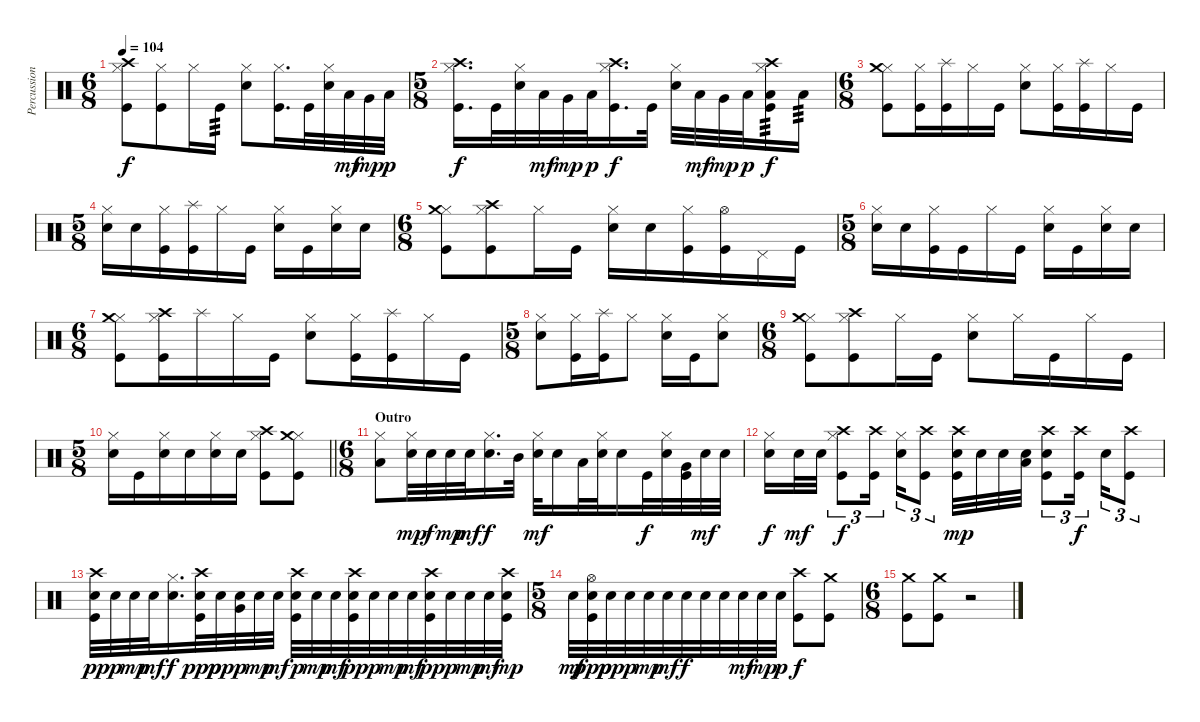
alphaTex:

\track ("Percussion" "Percussion") {instrument percussion}
\staff {score}
\articulation defaults
\ts (6 8)
\tempo 104
\clef neutral
\ks c
("Hi-Hat (closed)" "Crash high (hit)" "Kick (hit)").8{dy f} ("Hi-Hat (closed)" "Kick (hit)").8 "Hi-Hat (closed)".16 "Kick (hit)".16{tp 3} ("Hi-Hat (closed)" "Snare (hit) 2").8 ("Hi-Hat (closed)" "Kick (hit)").16{d} "Kick (hit)".32 ("Hi-Hat (closed)" "Snare (hit) 2").32 "Low Tom (hit)".32{dy mf} "Very Low Tom (hit)".32{dy mp} "Low Floor Tom (hit)".32{dy p} |
\ts (5 8)
("Hi-Hat (closed)" "Crash high (hit)" "Kick (hit)").16{d dy f} "Kick (hit)".32 ("Hi-Hat (closed)" "Snare (hit) 2").32 "Low Tom (hit)".32{dy mf} "Very Low Tom (hit)".32{dy mp} "Low Floor Tom (hit)".32{dy p} ("Hi-Hat (closed)" "Crash high (hit)" "Kick (hit)").16{d dy f} "Kick (hit)".32 ("Hi-Hat (closed)" "Snare (hit) 2").32 "Low Tom (hit)".32{dy mf} "Very Low Tom (hit)".32{dy mp} "Low Floor Tom (hit)".32{dy p} ("Hi-Hat (closed)" "Crash high (hit)" "Low Floor Tom (hit)" "Kick (hit)").16{tp 3 dy f} "Low Floor Tom (hit)".16{tp 3} |
\ts (6 8)
("Hi-Hat (closed)" "Crash medium (hit)" "Kick (hit)").8 ("Hi-Hat (closed)" "Kick (hit)").16 ("Splash (hit)" "Kick (hit)").16 "Hi-Hat (closed)".16 "Kick (hit)".16 ("Hi-Hat (closed)" "Snare (hit) 2").8 ("Hi-Hat (closed)" "Kick (hit)").16 ("Splash (hit)" "Kick (hit)").16 "Hi-Hat (closed)".16 "Kick (hit)".16 |
\ts (5 8)
("Hi-Hat (closed)" "Snare (hit) 2").16 "Snare (hit) 2".16 ("Hi-Hat (closed)" "Kick (hit)").16 ("Splash (hit)" "Kick (hit)").16 "Hi-Hat (closed)".16 "Kick (hit)".16 ("Hi-Hat (closed)" "Snare (hit) 2").16 "Kick (hit)".16 ("Hi-Hat (closed)" "Snare (hit) 2").16 "Snare (hit) 2".16 |
\ts (6 8)
("Hi-Hat (closed)" "Crash medium (hit)" "Kick (hit)").8 ("Hi-Hat (closed)" "Crash high (hit)" "Kick (hit)").8 "Hi-Hat (closed)".16 "Kick (hit)".16 ("Hi-Hat (closed)" "Snare (hit) 2").16 "Snare (hit) 2".16 ("Hi-Hat (closed)" "Kick (hit)").16 ("Hi-Hat (open)" "Kick (hit)").16 "Pedal Hi-Hat (hit)".16 "Kick (hit)".16 |
\ts (5 8)
("Hi-Hat (closed)" "Snare (hit) 2").16 "Snare (hit) 2".16 ("Hi-Hat (closed)" "Kick (hit)").16 "Kick (hit)".16 "Hi-Hat (closed)".16 "Kick (hit)".16 ("Hi-Hat (closed)" "Snare (hit) 2").16 "Kick (hit)".16 ("Hi-Hat (closed)" "Snare (hit) 2").16 "Snare (hit) 2".16 |
\ts (6 8)
("Hi-Hat (closed)" "Crash medium (hit)" "Kick (hit)").8 ("Hi-Hat (closed)" "Crash high (hit)" "Kick (hit)").16 "Splash (hit)".16 "Hi-Hat (closed)".16 "Kick (hit)".16 ("Hi-Hat (closed)" "Snare (hit) 2").8 ("Hi-Hat (closed)" "Kick (hit)").16 ("Splash (hit)" "Kick (hit)").16 "Hi-Hat (closed)".16 "Kick (hit)".16 |
\ts (5 8)
("Hi-Hat (closed)" "Snare (hit) 2").8 ("Hi-Hat (closed)" "Kick (hit)").16 ("Splash (hit)" "Kick (hit)").16 "Hi-Hat (closed)".8 ("Hi-Hat (closed)" "Snare (hit) 2").16 "Kick (hit)".16 ("Hi-Hat (closed)" "Snare (hit) 2").8 |
\ts (6 8)
("Hi-Hat (closed)" "Crash medium (hit)" "Kick (hit)").8 ("Hi-Hat (closed)" "Crash high (hit)" "Kick (hit)").8 "Hi-Hat (closed)".16 "Kick (hit)".16 ("Hi-Hat (closed)" "Snare (hit) 2").8 "Hi-Hat (closed)".16 "Kick (hit)".16 "Hi-Hat (closed)".16 "Kick (hit)".16 |
\ts (5 8)
\barLineRight lightlight
("Hi-Hat (closed)" "Snare (hit) 2").16 "Kick (hit)".16 ("Hi-Hat (closed)" "Snare (hit) 2").16 "Snare (hit) 2".16 ("Hi-Hat (closed)" "Snare (hit) 2").16 "Snare (hit) 2".16 ("Hi-Hat (closed)" "Crash high (hit)" "Kick (hit)").8 ("Hi-Hat (closed)" "Crash medium (hit)" "Kick (hit)").8 |
\ts (6 8)
\section ("" "Outro")
("Hi-Hat (closed)" "Low Floor Tom (hit)").8 ("Hi-Hat (closed)" "Snare (hit) 2").32{dy mp} "Snare (hit) 2".32{dy f} "Snare (hit) 2".32{dy mp} "Snare (hit) 2".32{dy mf} ("Hi-Hat (closed)" "Snare (hit) 2").16{d dy f} "Mid Tom (hit)".32 ("Hi-Hat (closed)" "Snare (hit) 2").32{dy mf} "Snare (hit) 2".16 "Low Tom (hit)".32 ("Hi-Hat (closed)" "Snare (hit) 2").32 "Snare (hit) 2".16 "Kick (hit)".32{dy f} ("Hi-Hat (closed)" "Snare (hit) 2").32 ("Very Low Tom (hit)" "Kick (hit)").32 "Snare (hit) 2".32{dy mf} "Snare (hit) 2".32 |
("Hi-Hat (closed)" "Snare (hit) 2").16{dy f} "Snare (hit) 2".32{dy mf} "Snare (hit) 2".32 ("Hi-Hat (closed)" "Crash high (hit)" "Kick (hit)").8{tu (3 2) dy f} ("Crash high (hit)" "Kick (hit)").16{tu (3 2) beam splitsecondary} ("Hi-Hat (closed)" "Snare (hit) 2").16{tu (3 2)} ("Crash high (hit)" "Kick (hit)").8{tu (3 2)} ("Crash high (hit)" "Snare (hit) 2" "Kick (hit)").32{dy mp} "Snare (hit) 2".32 "Snare (hit) 2".32 ("Snare (hit) 2" "Low Tom (hit)").32 ("Crash high (hit)" "Snare (hit) 2" "Kick (hit)").8{tu (3 2)} ("Crash high (hit)" "Kick (hit)").16{tu (3 2) dy f beam splitsecondary} "Snare (hit) 2".16{tu (3 2)} ("Crash high (hit)" "Kick (hit)").8{tu (3 2)} |
("Crash high (hit)" "Snare (hit) 2" "Kick (hit)").32{dy pp} "Snare (hit) 2".32{dy p} "Snare (hit) 2".32{dy mp} "Snare (hit) 2".32{dy mf} ("Hi-Hat (closed)" "Snare (hit) 2").16{d dy f} ("Crash high (hit)" "Snare (hit) 2" "Kick (hit)").32{dy ppp} "Snare (hit) 2".32{dy pp} ("Snare (hit) 2" "Very Low Tom (hit)").32{dy p} "Snare (hit) 2".32{dy mp} "Snare (hit) 2".32{dy mf} ("Crash high (hit)" "Snare (hit) 2" "Kick (hit)").32{dy p} "Snare (hit) 2".32{dy mp} "Snare (hit) 2".32{dy mf} ("Crash high (hit)" "Snare (hit) 2" "Kick (hit)").32{dy pp} "Snare (hit) 2".32{dy p} "Snare (hit) 2".32{dy mp} "Snare (hit) 2".32{dy mf} ("Crash high (hit)" "Snare (hit) 2" "Kick (hit)").32{dy pp} "Snare (hit) 2".32{dy p} "Snare (hit) 2".32{dy mp} "Snare (hit) 2".32{dy mf} ("Crash high (hit)" "Snare (hit) 2" "Kick (hit)").32{dy mp} |
\ts (5 8)
"Snare (hit) 2".32{dy mf} ("Hi-Hat (open)" "Snare (hit) 2" "Kick (hit)").32{dy ppp} "Snare (hit) 2".32{dy pp} "Snare (hit) 2".32{dy p} "Snare (hit) 2".32{dy mp} "Snare (hit) 2".32{dy mf} "Snare (hit) 2".32{dy f} "Snare (hit) 2".32 "Snare (hit) 2".32 "Snare (hit) 2".32{dy mf} "Snare (hit) 2".32{dy mp} "Snare (hit) 2".32{dy p} ("Crash high (hit)" "Kick (hit)").8{dy f} ("Crash medium (hit)" "Kick (hit)").8 |
\ts (6 8)
("Crash medium (hit)" "Kick (hit)").8 ("Crash medium (hit)" "Kick (hit)").8 r.2
